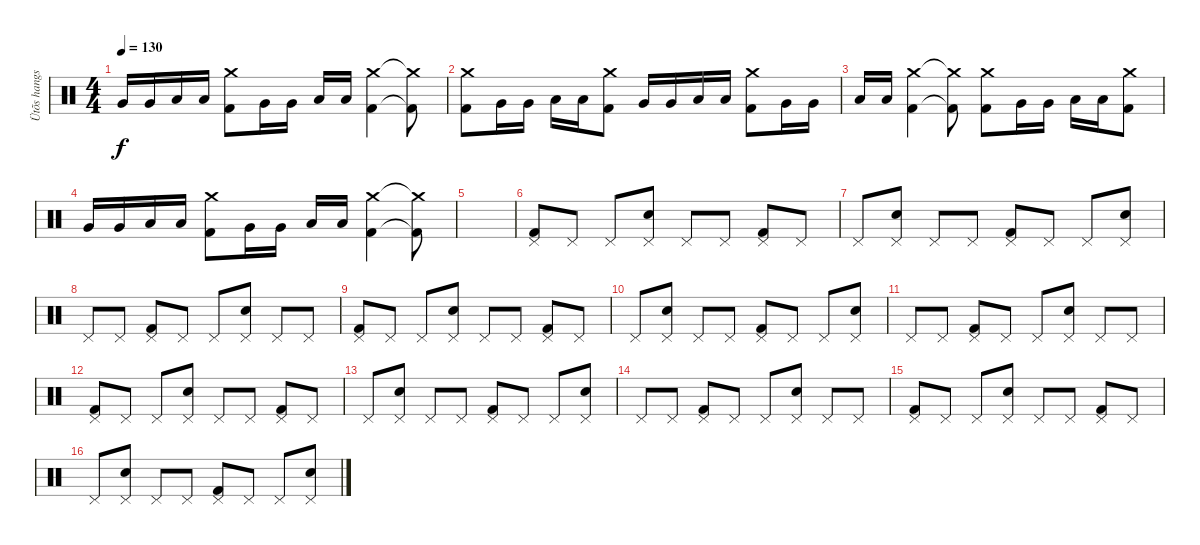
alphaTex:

\track ("Ütõs hangszer" "Ütõs hangs") {instrument percussion}
\staff {score}
\articulation defaults
\ts (4 4)
\tempo 130
\clef neutral
\ks c "Very Low Tom (hit)".16{dy f} "Very Low Tom (hit)".16 "Low Floor Tom (hit)".16 "Low Floor Tom (hit)".16
("Crash medium (hit)" "Kick (hit) 2").8 "Very Low Tom (hit)".16 "Very Low Tom (hit)".16 "Low Floor Tom (hit)".16 "Low Floor Tom (hit)".16 ("Crash medium (hit)" "Kick (hit) 2").4 ("Crash medium (hit)"{t} "Kick (hit) 2"{t}).8 |
("Crash medium (hit)" "Kick (hit) 2").8 "Very Low Tom (hit)".16 "Very Low Tom (hit)".16 "Low Floor Tom (hit)".16 "Low Floor Tom (hit)".16 ("Crash medium (hit)" "Kick (hit) 2").8 "Very Low Tom (hit)".16 "Very Low Tom (hit)".16 "Low Floor Tom (hit)".16 "Low Floor Tom (hit)".16 ("Crash medium (hit)" "Kick (hit) 2").8 "Very Low Tom (hit)".16 "Very Low Tom (hit)".16 |
"Low Floor Tom (hit)".16 "Low Floor Tom (hit)".16 ("Crash medium (hit)" "Kick (hit) 2").4 ("Crash medium (hit)"{t} "Kick (hit) 2"{t}).8 ("Crash medium (hit)" "Kick (hit) 2").8 "Very Low Tom (hit)".16 "Very Low Tom (hit)".16 "Low Floor Tom (hit)".16 "Low Floor Tom (hit)".16 ("Crash medium (hit)" "Kick (hit) 2").8 |
"Very Low Tom (hit)".16 "Very Low Tom (hit)".16 "Low Floor Tom (hit)".16 "Low Floor Tom (hit)".16 ("Crash medium (hit)" "Kick (hit) 2").8 "Very Low Tom (hit)".16 "Very Low Tom (hit)".16 "Low Floor Tom (hit)".16 "Low Floor Tom (hit)".16 ("Crash medium (hit)" "Kick (hit) 2").4 ("Crash medium (hit)"{t} "Kick (hit) 2"{t}).8 |
|
("Pedal Hi-Hat (hit)" "Kick (hit) 2").8 "Pedal Hi-Hat (hit)".8 "Pedal Hi-Hat (hit)".8 ("Pedal Hi-Hat (hit)" "Electric Snare (hit)").8 "Pedal Hi-Hat (hit)".8 "Pedal Hi-Hat (hit)".8 ("Pedal Hi-Hat (hit)" "Kick (hit) 2").8 "Pedal Hi-Hat (hit)".8 |
"Pedal Hi-Hat (hit)".8 ("Pedal Hi-Hat (hit)" "Electric Snare (hit)").8 "Pedal Hi-Hat (hit)".8 "Pedal Hi-Hat (hit)".8 ("Pedal Hi-Hat (hit)" "Kick (hit) 2").8 "Pedal Hi-Hat (hit)".8 "Pedal Hi-Hat (hit)".8 ("Pedal Hi-Hat (hit)" "Electric Snare (hit)").8 |
"Pedal Hi-Hat (hit)".8 "Pedal Hi-Hat (hit)".8 ("Pedal Hi-Hat (hit)" "Kick (hit) 2").8 "Pedal Hi-Hat (hit)".8 "Pedal Hi-Hat (hit)".8 ("Pedal Hi-Hat (hit)" "Electric Snare (hit)").8 "Pedal Hi-Hat (hit)".8 "Pedal Hi-Hat (hit)".8 |
("Pedal Hi-Hat (hit)" "Kick (hit) 2").8 "Pedal Hi-Hat (hit)".8 "Pedal Hi-Hat (hit)".8 ("Pedal Hi-Hat (hit)" "Electric Snare (hit)").8 "Pedal Hi-Hat (hit)".8 "Pedal Hi-Hat (hit)".8 ("Pedal Hi-Hat (hit)" "Kick (hit) 2").8 "Pedal Hi-Hat (hit)".8 |
"Pedal Hi-Hat (hit)".8 ("Pedal Hi-Hat (hit)" "Electric Snare (hit)").8 "Pedal Hi-Hat (hit)".8 "Pedal Hi-Hat (hit)".8 ("Pedal Hi-Hat (hit)" "Kick (hit) 2").8 "Pedal Hi-Hat (hit)".8 "Pedal Hi-Hat (hit)".8 ("Pedal Hi-Hat (hit)" "Electric Snare (hit)").8 |
"Pedal Hi-Hat (hit)".8 "Pedal Hi-Hat (hit)".8 ("Pedal Hi-Hat (hit)" "Kick (hit) 2").8 "Pedal Hi-Hat (hit)".8 "Pedal Hi-Hat (hit)".8 ("Pedal Hi-Hat (hit)" "Electric Snare (hit)").8 "Pedal Hi-Hat (hit)".8 "Pedal Hi-Hat (hit)".8 |
("Pedal Hi-Hat (hit)" "Kick (hit) 2").8 "Pedal Hi-Hat (hit)".8 "Pedal Hi-Hat (hit)".8 ("Pedal Hi-Hat (hit)" "Electric Snare (hit)").8 "Pedal Hi-Hat (hit)".8 "Pedal Hi-Hat (hit)".8 ("Pedal Hi-Hat (hit)" "Kick (hit) 2").8 "Pedal Hi-Hat (hit)".8 |
"Pedal Hi-Hat (hit)".8 ("Pedal Hi-Hat (hit)" "Electric Snare (hit)").8 "Pedal Hi-Hat (hit)".8 "Pedal Hi-Hat (hit)".8 ("Pedal Hi-Hat (hit)" "Kick (hit) 2").8 "Pedal Hi-Hat (hit)".8 "Pedal Hi-Hat (hit)".8 ("Pedal Hi-Hat (hit)" "Electric Snare (hit)").8 |
"Pedal Hi-Hat (hit)".8 "Pedal Hi-Hat (hit)".8 ("Pedal Hi-Hat (hit)" "Kick (hit) 2").8 "Pedal Hi-Hat (hit)".8 "Pedal Hi-Hat (hit)".8 ("Pedal Hi-Hat (hit)" "Electric Snare (hit)").8 "Pedal Hi-Hat (hit)".8 "Pedal Hi-Hat (hit)".8 |
("Pedal Hi-Hat (hit)" "Kick (hit) 2").8 "Pedal Hi-Hat (hit)".8 "Pedal Hi-Hat (hit)".8 ("Pedal Hi-Hat (hit)" "Electric Snare (hit)").8 "Pedal Hi-Hat (hit)".8 "Pedal Hi-Hat (hit)".8 ("Pedal Hi-Hat (hit)" "Kick (hit) 2").8 "Pedal Hi-Hat (hit)".8 |
"Pedal Hi-Hat (hit)".8 ("Pedal Hi-Hat (hit)" "Electric Snare (hit)").8 "Pedal Hi-Hat (hit)".8 "Pedal Hi-Hat (hit)".8 ("Pedal Hi-Hat (hit)" "Kick (hit) 2").8 "Pedal Hi-Hat (hit)".8 "Pedal Hi-Hat (hit)".8 ("Pedal Hi-Hat (hit)" "Electric Snare (hit)").8
